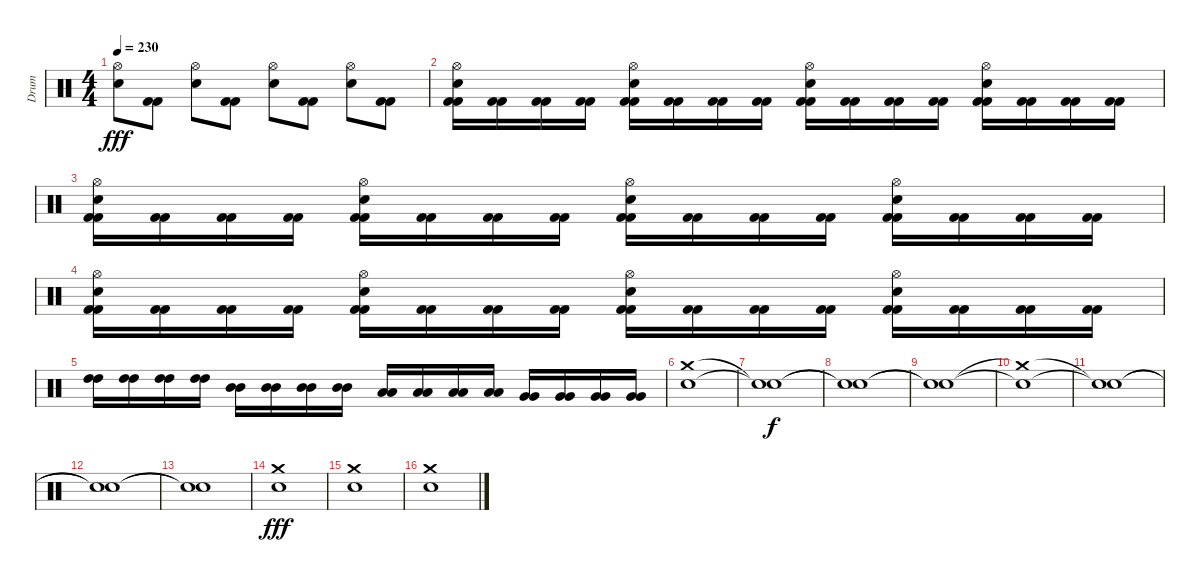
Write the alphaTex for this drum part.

\track ("Drum" "Drum") {instrument percussion}
\staff {score}
\articulation defaults
\ts (4 4)
\tempo 230
\clef neutral
\ks c
("Hi-Hat (open)" "Electric Snare (hit)").8{dy fff} ("Kick (hit) 2" "Kick (hit) 2").8 ("Hi-Hat (open)" "Electric Snare (hit)").8 ("Kick (hit) 2" "Kick (hit) 2").8 ("Hi-Hat (open)" "Electric Snare (hit)").8 ("Kick (hit) 2" "Kick (hit) 2").8 ("Hi-Hat (open)" "Electric Snare (hit)").8 ("Kick (hit) 2" "Kick (hit) 2").8 |
("Hi-Hat (open)" "Electric Snare (hit)" "Kick (hit) 2" "Kick (hit) 2").16 ("Kick (hit) 2" "Kick (hit) 2").16 ("Kick (hit) 2" "Kick (hit) 2").16 ("Kick (hit) 2" "Kick (hit) 2").16 ("Hi-Hat (open)" "Electric Snare (hit)" "Kick (hit) 2" "Kick (hit) 2").16 ("Kick (hit) 2" "Kick (hit) 2").16 ("Kick (hit) 2" "Kick (hit) 2").16 ("Kick (hit) 2" "Kick (hit) 2").16 ("Hi-Hat (open)" "Electric Snare (hit)" "Kick (hit) 2" "Kick (hit) 2").16 ("Kick (hit) 2" "Kick (hit) 2").16 ("Kick (hit) 2" "Kick (hit) 2").16 ("Kick (hit) 2" "Kick (hit) 2").16 ("Hi-Hat (open)" "Electric Snare (hit)" "Kick (hit) 2" "Kick (hit) 2").16 ("Kick (hit) 2" "Kick (hit) 2").16 ("Kick (hit) 2" "Kick (hit) 2").16 ("Kick (hit) 2" "Kick (hit) 2").16 |
("Hi-Hat (open)" "Electric Snare (hit)" "Kick (hit) 2" "Kick (hit) 2").16 ("Kick (hit) 2" "Kick (hit) 2").16 ("Kick (hit) 2" "Kick (hit) 2").16 ("Kick (hit) 2" "Kick (hit) 2").16 ("Hi-Hat (open)" "Electric Snare (hit)" "Kick (hit) 2" "Kick (hit) 2").16 ("Kick (hit) 2" "Kick (hit) 2").16 ("Kick (hit) 2" "Kick (hit) 2").16 ("Kick (hit) 2" "Kick (hit) 2").16 ("Hi-Hat (open)" "Electric Snare (hit)" "Kick (hit) 2" "Kick (hit) 2").16 ("Kick (hit) 2" "Kick (hit) 2").16 ("Kick (hit) 2" "Kick (hit) 2").16 ("Kick (hit) 2" "Kick (hit) 2").16 ("Hi-Hat (open)" "Electric Snare (hit)" "Kick (hit) 2" "Kick (hit) 2").16 ("Kick (hit) 2" "Kick (hit) 2").16 ("Kick (hit) 2" "Kick (hit) 2").16 ("Kick (hit) 2" "Kick (hit) 2").16 |
("Hi-Hat (open)" "Electric Snare (hit)" "Kick (hit) 2" "Kick (hit) 2").16 ("Kick (hit) 2" "Kick (hit) 2").16 ("Kick (hit) 2" "Kick (hit) 2").16 ("Kick (hit) 2" "Kick (hit) 2").16 ("Hi-Hat (open)" "Electric Snare (hit)" "Kick (hit) 2" "Kick (hit) 2").16 ("Kick (hit) 2" "Kick (hit) 2").16 ("Kick (hit) 2" "Kick (hit) 2").16 ("Kick (hit) 2" "Kick (hit) 2").16 ("Hi-Hat (open)" "Electric Snare (hit)" "Kick (hit) 2" "Kick (hit) 2").16 ("Kick (hit) 2" "Kick (hit) 2").16 ("Kick (hit) 2" "Kick (hit) 2").16 ("Kick (hit) 2" "Kick (hit) 2").16 ("Hi-Hat (open)" "Electric Snare (hit)" "Kick (hit) 2" "Kick (hit) 2").16 ("Kick (hit) 2" "Kick (hit) 2").16 ("Kick (hit) 2" "Kick (hit) 2").16 ("Kick (hit) 2" "Kick (hit) 2").16 |
("High Tom (hit)" "High Tom (hit)").16 ("High Tom (hit)" "High Tom (hit)").16 ("High Tom (hit)" "High Tom (hit)").16 ("High Tom (hit)" "High Tom (hit)").16 ("Mid Tom (hit)" "Mid Tom (hit)").16 ("Mid Tom (hit)" "Mid Tom (hit)").16 ("Mid Tom (hit)" "Mid Tom (hit)").16 ("Mid Tom (hit)" "Mid Tom (hit)").16 ("Low Tom (hit)" "Low Tom (hit)").16 ("Low Tom (hit)" "Low Tom (hit)").16 ("Low Tom (hit)" "Low Tom (hit)").16 ("Low Tom (hit)" "Low Tom (hit)").16 ("Very Low Tom (hit)" "Very Low Tom (hit)").16 ("Very Low Tom (hit)" "Very Low Tom (hit)").16 ("Very Low Tom (hit)" "Very Low Tom (hit)").16 ("Very Low Tom (hit)" "Very Low Tom (hit)").16 |
("Crash medium (hit)" "Electric Snare (hit)").1 |
("Snare (hit)"{t} "Snare (hit)"{t}).1{dy f} |
("Snare (hit)"{t} "Snare (hit)"{t}).1 |
("Snare (hit)"{t} "Snare (hit)"{t}).1 |
("Crash medium (hit)"{t} "Electric Snare (hit)"{t}).1 |
("Snare (hit)"{t} "Snare (hit)"{t}).1 |
("Snare (hit)"{t} "Snare (hit)"{t}).1 |
("Snare (hit)"{t} "Snare (hit)"{t}).1 |
("Crash medium (hit)" "Electric Snare (hit)").1{dy fff} |
("Crash medium (hit)" "Electric Snare (hit)").1 |
("Crash medium (hit)" "Electric Snare (hit)").1
